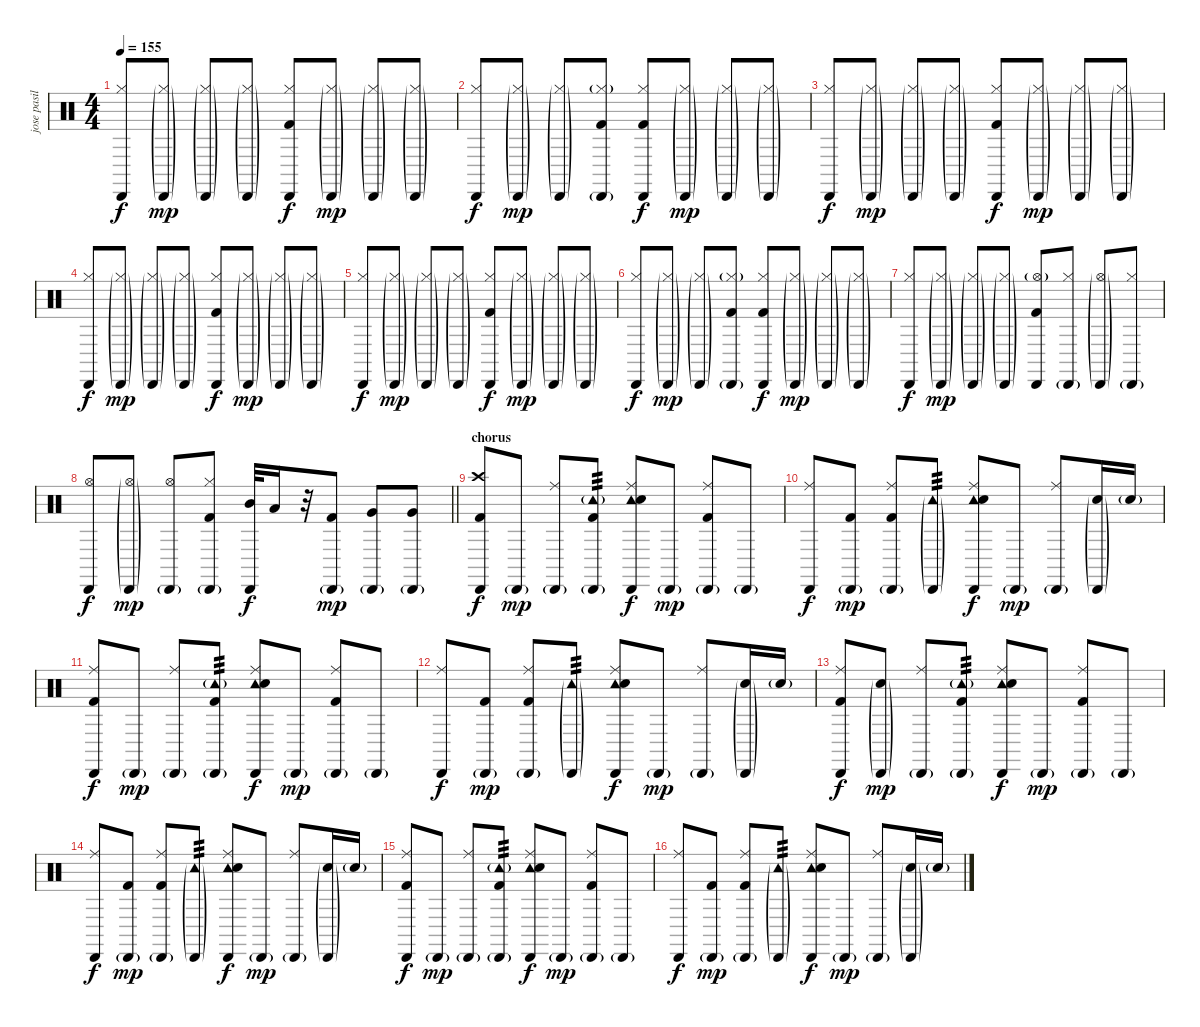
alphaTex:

\track ("jose pasillas" "jose pasil") {instrument percussion}
\staff {score}
\articulation defaults
\ts (4 4)
\tempo 155
\clef neutral
\ks c
("Cabasa (hit)" "Hi-Hat (closed)").8{dy f} ("Cabasa (hit)"{g} "Hi-Hat (closed)"{g}).8{dy mp} ("Cabasa (hit)"{g} "Hi-Hat (closed)"{g}).8 ("Cabasa (hit)"{g} "Hi-Hat (closed)"{g}).8 ("Cabasa (hit)" "Hi-Hat (closed)" "Kick (hit) 2").8{dy f} ("Cabasa (hit)"{g} "Hi-Hat (closed)"{g}).8{dy mp} ("Cabasa (hit)"{g} "Hi-Hat (closed)"{g}).8 ("Cabasa (hit)"{g} "Hi-Hat (closed)"{g}).8 |
("Cabasa (hit)" "Hi-Hat (closed)").8{dy f} ("Cabasa (hit)"{g} "Hi-Hat (closed)"{g}).8{dy mp} ("Cabasa (hit)"{g} "Hi-Hat (closed)"{g}).8 ("Cabasa (hit)"{g} "Hi-Hat (closed)"{g} "Kick (hit) 2").8 ("Cabasa (hit)" "Hi-Hat (closed)" "Kick (hit) 2").8{dy f} ("Cabasa (hit)"{g} "Hi-Hat (closed)"{g}).8{dy mp} ("Cabasa (hit)"{g} "Hi-Hat (closed)"{g}).8 ("Cabasa (hit)"{g} "Hi-Hat (closed)"{g}).8 |
("Cabasa (hit)" "Hi-Hat (closed)").8{dy f} ("Cabasa (hit)"{g} "Hi-Hat (closed)"{g}).8{dy mp} ("Cabasa (hit)"{g} "Hi-Hat (closed)"{g}).8 ("Cabasa (hit)"{g} "Hi-Hat (closed)"{g}).8 ("Cabasa (hit)" "Hi-Hat (closed)" "Kick (hit) 2").8{dy f} ("Cabasa (hit)"{g} "Hi-Hat (closed)"{g}).8{dy mp} ("Cabasa (hit)"{g} "Hi-Hat (closed)"{g}).8 ("Cabasa (hit)"{g} "Hi-Hat (closed)"{g}).8 |
("Cabasa (hit)" "Hi-Hat (closed)").8{dy f} ("Cabasa (hit)"{g} "Hi-Hat (closed)"{g}).8{dy mp} ("Cabasa (hit)"{g} "Hi-Hat (closed)"{g}).8 ("Cabasa (hit)"{g} "Hi-Hat (closed)"{g}).8 ("Cabasa (hit)" "Hi-Hat (closed)" "Kick (hit) 2").8{dy f} ("Cabasa (hit)"{g} "Hi-Hat (closed)"{g}).8{dy mp} ("Cabasa (hit)"{g} "Hi-Hat (closed)"{g}).8 ("Cabasa (hit)"{g} "Hi-Hat (closed)"{g}).8 |
("Cabasa (hit)" "Hi-Hat (closed)").8{dy f} ("Cabasa (hit)"{g} "Hi-Hat (closed)"{g}).8{dy mp} ("Cabasa (hit)"{g} "Hi-Hat (closed)"{g}).8 ("Cabasa (hit)"{g} "Hi-Hat (closed)"{g}).8 ("Cabasa (hit)" "Hi-Hat (closed)" "Kick (hit) 2").8{dy f} ("Cabasa (hit)"{g} "Hi-Hat (closed)"{g}).8{dy mp} ("Cabasa (hit)"{g} "Hi-Hat (closed)"{g}).8 ("Cabasa (hit)"{g} "Hi-Hat (closed)"{g}).8 |
("Cabasa (hit)" "Hi-Hat (closed)").8{dy f} ("Cabasa (hit)"{g} "Hi-Hat (closed)"{g}).8{dy mp} ("Cabasa (hit)"{g} "Hi-Hat (closed)"{g}).8 ("Cabasa (hit)"{g} "Hi-Hat (closed)"{g} "Kick (hit) 2").8 ("Cabasa (hit)" "Hi-Hat (closed)" "Kick (hit) 2").8{dy f} ("Cabasa (hit)"{g} "Hi-Hat (closed)"{g}).8{dy mp} ("Cabasa (hit)"{g} "Hi-Hat (closed)"{g}).8 ("Cabasa (hit)"{g} "Hi-Hat (closed)"{g}).8 |
("Cabasa (hit)" "Hi-Hat (closed)").8{dy f} ("Cabasa (hit)"{g} "Hi-Hat (closed)"{g}).8{dy mp} ("Cabasa (hit)"{g} "Hi-Hat (closed)"{g}).8 ("Cabasa (hit)"{g} "Hi-Hat (closed)"{g}).8 ("Cabasa (hit)" "Hi-Hat (open)"{g} "Kick (hit) 2").8 ("Cabasa (hit)"{g} "Hi-Hat (closed)").8 ("Cabasa (hit)"{g} "Hi-Hat (open)"{g}).8 ("Cabasa (hit)"{g} "Hi-Hat (closed)").8 |
\barLineRight lightlight
("Cabasa (hit)" "Hi-Hat (open)").8{dy f} ("Cabasa (hit)"{g} "Hi-Hat (open)"{g}).8{dy mp} ("Cabasa (hit)"{g} "Hi-Hat (open)").8 ("Cabasa (hit)"{g} "Hi-Hat (closed)" "Kick (hit) 2").8 ("Cabasa (hit)" "Mid Tom (hit)").32{dy f} "Low Tom (hit)".16 r.32 ("Cabasa (hit)"{g} "Kick (hit) 2").8{dy mp} ("Cabasa (hit)"{g} "Very Low Tom (hit)").8 ("Cabasa (hit)"{g} "Very Low Tom (hit)").8 |
\section ("" "chorus")
("Cabasa (hit)" "Crash high (hit)" "Kick (hit) 2").8{dy f} "Cabasa (hit)"{g}.8{dy mp} ("Cabasa (hit)"{g} "Ride (middle)").8 ("Cabasa (hit)"{g} "Tambourine (hit)"{g} "Kick (hit) 2").8{tp 3} ("Cabasa (hit)" "Tambourine (hit)" "Ride (middle)" "Snare (hit) 2").8{dy f} "Cabasa (hit)"{g}.8{dy mp} ("Cabasa (hit)"{g} "Ride (middle)" "Kick (hit) 2").8 "Cabasa (hit)"{g}.8 |
("Cabasa (hit)" "Ride (middle)").8{dy f} ("Cabasa (hit)"{g} "Kick (hit) 2").8{dy mp} ("Cabasa (hit)"{g} "Ride (middle)" "Kick (hit) 2").8 ("Cabasa (hit)"{g} "Tambourine (hit)"{g}).8{tp 3} ("Cabasa (hit)" "Tambourine (hit)" "Ride (middle)" "Snare (hit) 2").8{dy f} "Cabasa (hit)"{g}.8{dy mp} ("Cabasa (hit)"{g} "Ride (middle)").8 ("Cabasa (hit)"{g} "Snare (hit) 2"{g}).16 "Snare (hit) 2"{g}.16 |
("Cabasa (hit)" "Ride (middle)" "Kick (hit) 2").8{dy f} "Cabasa (hit)"{g}.8{dy mp} ("Cabasa (hit)"{g} "Ride (middle)").8 ("Cabasa (hit)"{g} "Tambourine (hit)"{g} "Kick (hit) 2").8{tp 3} ("Cabasa (hit)" "Tambourine (hit)" "Ride (middle)" "Snare (hit) 2").8{dy f} "Cabasa (hit)"{g}.8{dy mp} ("Cabasa (hit)"{g} "Ride (middle)" "Kick (hit) 2").8 "Cabasa (hit)"{g}.8 |
("Cabasa (hit)" "Ride (middle)").8{dy f} ("Cabasa (hit)"{g} "Kick (hit) 2").8{dy mp} ("Cabasa (hit)"{g} "Ride (middle)" "Kick (hit) 2").8 ("Cabasa (hit)"{g} "Tambourine (hit)"{g}).8{tp 3} ("Cabasa (hit)" "Tambourine (hit)" "Ride (middle)" "Snare (hit) 2").8{dy f} "Cabasa (hit)"{g}.8{dy mp} ("Cabasa (hit)"{g} "Ride (middle)").8 ("Cabasa (hit)"{g} "Snare (hit) 2"{g}).16 "Snare (hit) 2"{g}.16 |
("Cabasa (hit)" "Ride (middle)" "Kick (hit) 2").8{dy f} ("Cabasa (hit)"{g} "Snare (hit) 2"{g}).8{dy mp} ("Cabasa (hit)"{g} "Ride (middle)").8 ("Cabasa (hit)"{g} "Tambourine (hit)"{g} "Kick (hit) 2").8{tp 3} ("Cabasa (hit)" "Tambourine (hit)" "Ride (middle)" "Snare (hit) 2").8{dy f} "Cabasa (hit)"{g}.8{dy mp} ("Cabasa (hit)"{g} "Ride (middle)" "Kick (hit) 2").8 "Cabasa (hit)"{g}.8 |
("Cabasa (hit)" "Ride (middle)").8{dy f} ("Cabasa (hit)"{g} "Kick (hit) 2").8{dy mp} ("Cabasa (hit)"{g} "Ride (middle)" "Kick (hit) 2").8 ("Cabasa (hit)"{g} "Tambourine (hit)"{g}).8{tp 3} ("Cabasa (hit)" "Tambourine (hit)" "Ride (middle)" "Snare (hit) 2").8{dy f} "Cabasa (hit)"{g}.8{dy mp} ("Cabasa (hit)"{g} "Ride (middle)").8 ("Cabasa (hit)"{g} "Snare (hit) 2"{g}).16 "Snare (hit) 2"{g}.16 |
("Cabasa (hit)" "Ride (middle)" "Kick (hit) 2").8{dy f} "Cabasa (hit)"{g}.8{dy mp} ("Cabasa (hit)"{g} "Ride (middle)").8 ("Cabasa (hit)"{g} "Tambourine (hit)"{g} "Kick (hit) 2").8{tp 3} ("Cabasa (hit)" "Tambourine (hit)" "Ride (middle)" "Snare (hit) 2").8{dy f} "Cabasa (hit)"{g}.8{dy mp} ("Cabasa (hit)"{g} "Ride (middle)" "Kick (hit) 2").8 "Cabasa (hit)"{g}.8 |
("Cabasa (hit)" "Ride (middle)").8{dy f} ("Cabasa (hit)"{g} "Kick (hit) 2").8{dy mp} ("Cabasa (hit)"{g} "Ride (middle)" "Kick (hit) 2").8 ("Cabasa (hit)"{g} "Tambourine (hit)"{g}).8{tp 3} ("Cabasa (hit)" "Tambourine (hit)" "Ride (middle)" "Snare (hit) 2").8{dy f} "Cabasa (hit)"{g}.8{dy mp} ("Cabasa (hit)"{g} "Ride (middle)").8 ("Cabasa (hit)"{g} "Snare (hit) 2"{g}).16 "Snare (hit) 2"{g}.16
